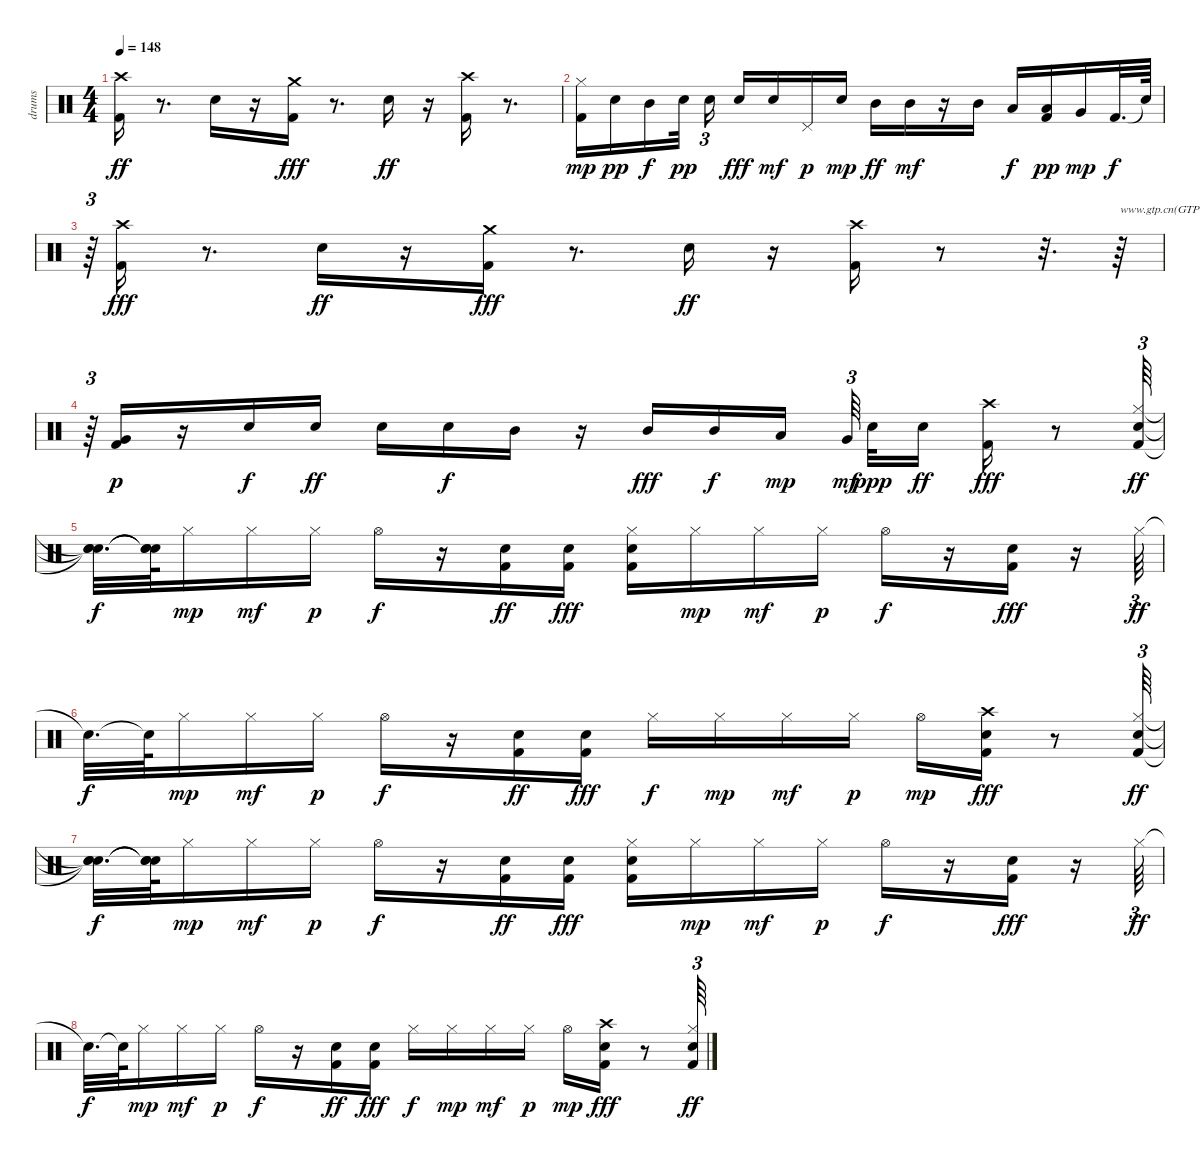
\track ("drums" "drums") {instrument percussion}
\staff {score}
\articulation defaults
\ts (4 4)
\tempo 148
\clef neutral
\ks c
("Kick (hit) 2" "Crash high (hit)").16{dy ff} r.8{d} "Electric Snare (hit)".16 r.16 ("Kick (hit) 2" "Crash medium (hit)").16{dy fff} r.8{d} "Electric Snare (hit)".16{dy ff} r.16 ("Kick (hit) 2" "Crash high (hit)").16 r.8{d} |
("Kick (hit) 2" "Hi-Hat (closed)").16{dy mp} "Snare (hit) 2".16{dy pp} "Mid Tom (hit)".16{dy f} "Snare (hit) 2".32{dy pp beam splitsecondary} "Snare (hit) 2".16{tu (3 2)} "Electric Snare (hit)".16{dy fff} "Electric Snare (hit)".16{dy mf} "Pedal Hi-Hat (hit)".16{dy p} "Snare (hit) 2".16{dy mp} "Mid Tom (hit)".16{dy ff} "Mid Tom (hit)".16{dy mf} r.16 "Mid Tom (hit)".16 "Low Tom (hit)".16{dy f} ("Low Tom (hit)" "Kick (hit) 2").16{dy pp} "Very Low Tom (hit)".16{dy mp} "Kick (hit) 2".32{d dy f} "Snare (hit)"{t}.64 |
r.64{tu (3 2)} ("Crash high (hit)" "Kick (hit) 2").16{dy fff} r.8{d} "Electric Snare (hit)".16{dy ff} r.16 ("Kick (hit) 2" "Crash medium (hit)").16{dy fff} r.8{d} "Electric Snare (hit)".16{dy ff} r.16 ("Kick (hit) 2" "Crash high (hit)").16 r.8 r.32{d} r.64{txt "www.gtp.cn(GTP中文网)您提供优秀的GTP"} |
r.64{tu (3 2)} ("Kick (hit) 2" "Very Low Tom (hit)").16{dy p} r.16 "Electric Snare (hit)".16{dy f} "Snare (hit) 2".16{dy ff} "Electric Snare (hit)".16 "Electric Snare (hit)".16{dy f} "Mid Tom (hit)".16 r.16 "Mid Tom (hit)".16{dy fff} "Mid Tom (hit)".16{dy f} "Low Tom (hit)".16{dy mp beam splitsecondary} "Very Low Tom (hit)".64{tu (3 2) dy mf beam splitsecondary} "Electric Snare (hit)".32{dy ppp} "Electric Snare (hit)".16{dy ff} ("Crash high (hit)" "Kick (hit) 2").16{dy fff} r.8 ("Hi-Hat (closed)" "Kick (hit) 2" "Snare (hit) 2").64{tu (3 2) dy ff} |
("Snare (hit)"{t} "Snare (hit)"{t} "Snare (hit)"{t}).32{d dy f} ("Snare (hit)"{t} "Snare (hit)"{t} "Snare (hit)"{t}).64 "Hi-Hat (closed)".16{dy mp} "Hi-Hat (closed)".16{dy mf} "Hi-Hat (closed)".16{dy p} "Hi-Hat (open)".16{dy f} r.16 ("Kick (hit) 2" "Snare (hit) 2").16{dy ff} ("Kick (hit) 2" "Snare (hit) 2").16{dy fff} ("Hi-Hat (closed)" "Kick (hit) 2" "Snare (hit) 2").16 "Hi-Hat (closed)".16{dy mp} "Hi-Hat (closed)".16{dy mf} "Hi-Hat (closed)".16{dy p} "Hi-Hat (open)".16{dy f} r.16 ("Kick (hit) 2" "Snare (hit) 2").16{dy fff} r.16 "Hi-Hat (closed)".64{tu (3 2) dy ff} |
"Snare (hit)"{t}.32{d dy f} "Snare (hit)"{t}.64 "Hi-Hat (closed)".16{dy mp} "Hi-Hat (closed)".16{dy mf} "Hi-Hat (closed)".16{dy p} "Hi-Hat (open)".16{dy f} r.16 ("Kick (hit) 2" "Snare (hit) 2").16{dy ff} ("Kick (hit) 2" "Snare (hit) 2").16{dy fff} "Hi-Hat (closed)".16{dy f} "Hi-Hat (closed)".16{dy mp} "Hi-Hat (closed)".16{dy mf} "Hi-Hat (closed)".16{dy p} "Hi-Hat (open)".16{dy mp} ("Crash high (hit)" "Snare (hit) 2" "Kick (hit) 2").16{dy fff} r.8 ("Hi-Hat (closed)" "Kick (hit) 2" "Snare (hit) 2").64{tu (3 2) dy ff} |
("Snare (hit)"{t} "Snare (hit)"{t} "Snare (hit)"{t}).32{d dy f} ("Snare (hit)"{t} "Snare (hit)"{t} "Snare (hit)"{t}).64 "Hi-Hat (closed)".16{dy mp} "Hi-Hat (closed)".16{dy mf} "Hi-Hat (closed)".16{dy p} "Hi-Hat (open)".16{dy f} r.16 ("Kick (hit) 2" "Snare (hit) 2").16{dy ff} ("Kick (hit) 2" "Snare (hit) 2").16{dy fff} ("Hi-Hat (closed)" "Kick (hit) 2" "Snare (hit) 2").16 "Hi-Hat (closed)".16{dy mp} "Hi-Hat (closed)".16{dy mf} "Hi-Hat (closed)".16{dy p} "Hi-Hat (open)".16{dy f} r.16 ("Kick (hit) 2" "Snare (hit) 2").16{dy fff} r.16 "Hi-Hat (closed)".64{tu (3 2) dy ff} |
"Snare (hit)"{t}.32{d dy f} "Snare (hit)"{t}.64 "Hi-Hat (closed)".16{dy mp} "Hi-Hat (closed)".16{dy mf} "Hi-Hat (closed)".16{dy p} "Hi-Hat (open)".16{dy f} r.16 ("Kick (hit) 2" "Snare (hit) 2").16{dy ff} ("Kick (hit) 2" "Snare (hit) 2").16{dy fff} "Hi-Hat (closed)".16{dy f} "Hi-Hat (closed)".16{dy mp} "Hi-Hat (closed)".16{dy mf} "Hi-Hat (closed)".16{dy p} "Hi-Hat (open)".16{dy mp} ("Crash high (hit)" "Snare (hit) 2" "Kick (hit) 2").16{dy fff} r.8 ("Hi-Hat (closed)" "Kick (hit) 2" "Snare (hit) 2").64{tu (3 2) dy ff}
